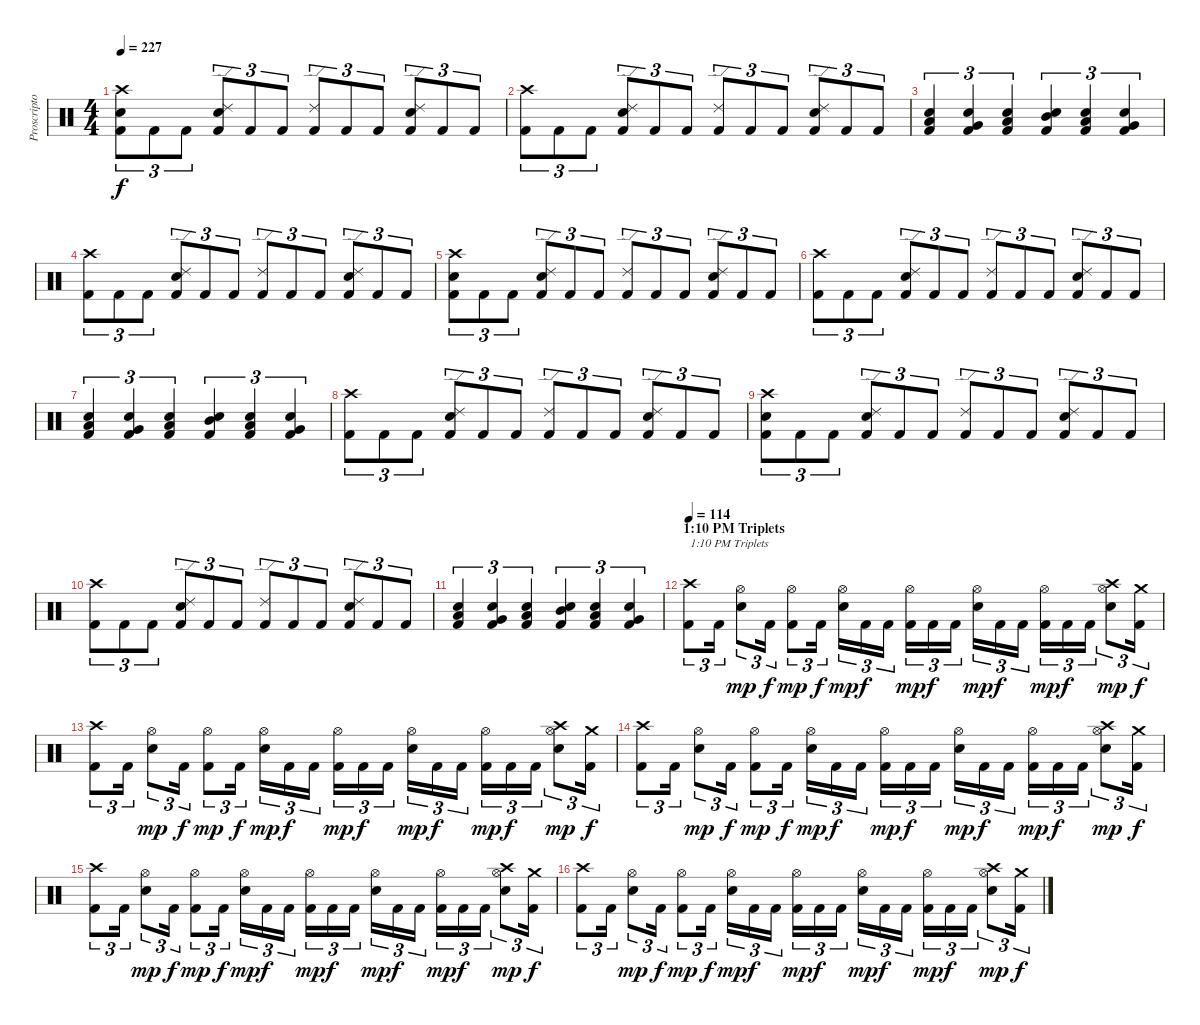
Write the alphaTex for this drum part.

\track ("Proscriptor (Drums)" "Proscripto") {instrument percussion}
\staff {score}
\articulation defaults
\ts (4 4)
\tempo 227
\clef neutral
\ks c
("Kick (hit) 2" "Electric Snare (hit)" "Crash high (hit)").8{tu (3 2) dy f} "Kick (hit) 2".8{tu (3 2)} "Kick (hit) 2".8{tu (3 2)} ("Kick (hit) 2" "Electric Snare (hit)" "Ride (edge) 2").8{tu (3 2)} "Kick (hit) 2".8{tu (3 2)} "Kick (hit) 2".8{tu (3 2)} ("Kick (hit) 2" "Ride (edge) 2").8{tu (3 2)} "Kick (hit) 2".8{tu (3 2)} "Kick (hit) 2".8{tu (3 2)} ("Kick (hit) 2" "Electric Snare (hit)" "Ride (edge) 2").8{tu (3 2)} "Kick (hit) 2".8{tu (3 2)} "Kick (hit) 2".8{tu (3 2)} |
("Kick (hit) 2" "Crash high (hit)").8{tu (3 2)} "Kick (hit) 2".8{tu (3 2)} "Kick (hit) 2".8{tu (3 2)} ("Kick (hit) 2" "Electric Snare (hit)" "Ride (edge) 2").8{tu (3 2)} "Kick (hit) 2".8{tu (3 2)} "Kick (hit) 2".8{tu (3 2)} ("Kick (hit) 2" "Ride (edge) 2").8{tu (3 2)} "Kick (hit) 2".8{tu (3 2)} "Kick (hit) 2".8{tu (3 2)} ("Kick (hit) 2" "Electric Snare (hit)" "Ride (edge) 2").8{tu (3 2)} "Kick (hit) 2".8{tu (3 2)} "Kick (hit) 2".8{tu (3 2)} |
("Kick (hit) 2" "Low Floor Tom (hit)" "Electric Snare (hit)").4{tu (3 2)} ("Kick (hit) 2" "Very Low Tom (hit)" "Electric Snare (hit)").4{tu (3 2)} ("Kick (hit) 2" "Low Tom (hit)" "Electric Snare (hit)").4{tu (3 2)} ("Kick (hit) 2" "Mid Tom (hit)" "Electric Snare (hit)").4{tu (3 2)} ("Kick (hit) 2" "Low Tom (hit)" "Electric Snare (hit)").4{tu (3 2)} ("Kick (hit) 2" "Very Low Tom (hit)" "Electric Snare (hit)").4{tu (3 2)} |
("Kick (hit) 2" "Crash high (hit)").8{tu (3 2)} "Kick (hit) 2".8{tu (3 2)} "Kick (hit) 2".8{tu (3 2)} ("Kick (hit) 2" "Electric Snare (hit)" "Ride (edge) 2").8{tu (3 2)} "Kick (hit) 2".8{tu (3 2)} "Kick (hit) 2".8{tu (3 2)} ("Kick (hit) 2" "Ride (edge) 2").8{tu (3 2)} "Kick (hit) 2".8{tu (3 2)} "Kick (hit) 2".8{tu (3 2)} ("Kick (hit) 2" "Electric Snare (hit)" "Ride (edge) 2").8{tu (3 2)} "Kick (hit) 2".8{tu (3 2)} "Kick (hit) 2".8{tu (3 2)} |
("Kick (hit) 2" "Electric Snare (hit)" "Crash high (hit)").8{tu (3 2)} "Kick (hit) 2".8{tu (3 2)} "Kick (hit) 2".8{tu (3 2)} ("Kick (hit) 2" "Electric Snare (hit)" "Ride (edge) 2").8{tu (3 2)} "Kick (hit) 2".8{tu (3 2)} "Kick (hit) 2".8{tu (3 2)} ("Kick (hit) 2" "Ride (edge) 2").8{tu (3 2)} "Kick (hit) 2".8{tu (3 2)} "Kick (hit) 2".8{tu (3 2)} ("Kick (hit) 2" "Electric Snare (hit)" "Ride (edge) 2").8{tu (3 2)} "Kick (hit) 2".8{tu (3 2)} "Kick (hit) 2".8{tu (3 2)} |
("Kick (hit) 2" "Crash high (hit)").8{tu (3 2)} "Kick (hit) 2".8{tu (3 2)} "Kick (hit) 2".8{tu (3 2)} ("Kick (hit) 2" "Electric Snare (hit)" "Ride (edge) 2").8{tu (3 2)} "Kick (hit) 2".8{tu (3 2)} "Kick (hit) 2".8{tu (3 2)} ("Kick (hit) 2" "Ride (edge) 2").8{tu (3 2)} "Kick (hit) 2".8{tu (3 2)} "Kick (hit) 2".8{tu (3 2)} ("Kick (hit) 2" "Electric Snare (hit)" "Ride (edge) 2").8{tu (3 2)} "Kick (hit) 2".8{tu (3 2)} "Kick (hit) 2".8{tu (3 2)} |
("Kick (hit) 2" "Low Floor Tom (hit)" "Electric Snare (hit)").4{tu (3 2)} ("Kick (hit) 2" "Very Low Tom (hit)" "Electric Snare (hit)").4{tu (3 2)} ("Kick (hit) 2" "Low Tom (hit)" "Electric Snare (hit)").4{tu (3 2)} ("Kick (hit) 2" "Mid Tom (hit)" "Electric Snare (hit)").4{tu (3 2)} ("Kick (hit) 2" "Low Tom (hit)" "Electric Snare (hit)").4{tu (3 2)} ("Kick (hit) 2" "Very Low Tom (hit)" "Electric Snare (hit)").4{tu (3 2)} |
("Kick (hit) 2" "Crash high (hit)").8{tu (3 2)} "Kick (hit) 2".8{tu (3 2)} "Kick (hit) 2".8{tu (3 2)} ("Kick (hit) 2" "Electric Snare (hit)" "Ride (edge) 2").8{tu (3 2)} "Kick (hit) 2".8{tu (3 2)} "Kick (hit) 2".8{tu (3 2)} ("Kick (hit) 2" "Ride (edge) 2").8{tu (3 2)} "Kick (hit) 2".8{tu (3 2)} "Kick (hit) 2".8{tu (3 2)} ("Kick (hit) 2" "Electric Snare (hit)" "Ride (edge) 2").8{tu (3 2)} "Kick (hit) 2".8{tu (3 2)} "Kick (hit) 2".8{tu (3 2)} |
("Kick (hit) 2" "Electric Snare (hit)" "Crash high (hit)").8{tu (3 2)} "Kick (hit) 2".8{tu (3 2)} "Kick (hit) 2".8{tu (3 2)} ("Kick (hit) 2" "Electric Snare (hit)" "Ride (edge) 2").8{tu (3 2)} "Kick (hit) 2".8{tu (3 2)} "Kick (hit) 2".8{tu (3 2)} ("Kick (hit) 2" "Ride (edge) 2").8{tu (3 2)} "Kick (hit) 2".8{tu (3 2)} "Kick (hit) 2".8{tu (3 2)} ("Kick (hit) 2" "Electric Snare (hit)" "Ride (edge) 2").8{tu (3 2)} "Kick (hit) 2".8{tu (3 2)} "Kick (hit) 2".8{tu (3 2)} |
("Kick (hit) 2" "Crash high (hit)").8{tu (3 2)} "Kick (hit) 2".8{tu (3 2)} "Kick (hit) 2".8{tu (3 2)} ("Kick (hit) 2" "Electric Snare (hit)" "Ride (edge) 2").8{tu (3 2)} "Kick (hit) 2".8{tu (3 2)} "Kick (hit) 2".8{tu (3 2)} ("Kick (hit) 2" "Ride (edge) 2").8{tu (3 2)} "Kick (hit) 2".8{tu (3 2)} "Kick (hit) 2".8{tu (3 2)} ("Kick (hit) 2" "Electric Snare (hit)" "Ride (edge) 2").8{tu (3 2)} "Kick (hit) 2".8{tu (3 2)} "Kick (hit) 2".8{tu (3 2)} |
("Kick (hit) 2" "Low Floor Tom (hit)" "Electric Snare (hit)").4{tu (3 2)} ("Kick (hit) 2" "Very Low Tom (hit)" "Electric Snare (hit)").4{tu (3 2)} ("Kick (hit) 2" "Low Tom (hit)" "Electric Snare (hit)").4{tu (3 2)} ("Kick (hit) 2" "Mid Tom (hit)" "Electric Snare (hit)").4{tu (3 2)} ("Kick (hit) 2" "Low Tom (hit)" "Electric Snare (hit)").4{tu (3 2)} ("Kick (hit) 2" "Very Low Tom (hit)" "Electric Snare (hit)").4{tu (3 2)} |
\section ("" "1:10 PM Triplets ")
\tempo 114
("Kick (hit) 2" "Crash high (hit)").8{tu (3 2) txt "1:10 PM Triplets "} "Kick (hit) 2".16{tu (3 2)} ("Electric Snare (hit)" "Hi-Hat (open)").8{tu (3 2) dy mp} "Kick (hit) 2".16{tu (3 2) dy f} ("Kick (hit) 2" "Hi-Hat (open)").8{tu (3 2) dy mp} "Kick (hit) 2".16{tu (3 2) dy f} ("Electric Snare (hit)" "Hi-Hat (open)").16{tu (3 2) dy mp} "Kick (hit) 2".16{tu (3 2) dy f} "Kick (hit) 2".16{tu (3 2)} ("Kick (hit) 2" "Hi-Hat (open)").16{tu (3 2) dy mp} "Kick (hit) 2".16{tu (3 2) dy f} "Kick (hit) 2".16{tu (3 2)} ("Electric Snare (hit)" "Hi-Hat (open)").16{tu (3 2) dy mp} "Kick (hit) 2".16{tu (3 2) dy f} "Kick (hit) 2".16{tu (3 2)} ("Kick (hit) 2" "Hi-Hat (open)").16{tu (3 2) dy mp} "Kick (hit) 2".16{tu (3 2) dy f} "Kick (hit) 2".16{tu (3 2)} ("Electric Snare (hit)" "Hi-Hat (open)" "Crash high (hit)").8{tu (3 2) dy mp} ("Kick (hit) 2" "Crash medium (hit)").16{tu (3 2) dy f} |
("Kick (hit) 2" "Crash high (hit)").8{tu (3 2)} "Kick (hit) 2".16{tu (3 2)} ("Electric Snare (hit)" "Hi-Hat (open)").8{tu (3 2) dy mp} "Kick (hit) 2".16{tu (3 2) dy f} ("Kick (hit) 2" "Hi-Hat (open)").8{tu (3 2) dy mp} "Kick (hit) 2".16{tu (3 2) dy f} ("Electric Snare (hit)" "Hi-Hat (open)").16{tu (3 2) dy mp} "Kick (hit) 2".16{tu (3 2) dy f} "Kick (hit) 2".16{tu (3 2)} ("Kick (hit) 2" "Hi-Hat (open)").16{tu (3 2) dy mp} "Kick (hit) 2".16{tu (3 2) dy f} "Kick (hit) 2".16{tu (3 2)} ("Electric Snare (hit)" "Hi-Hat (open)").16{tu (3 2) dy mp} "Kick (hit) 2".16{tu (3 2) dy f} "Kick (hit) 2".16{tu (3 2)} ("Kick (hit) 2" "Hi-Hat (open)").16{tu (3 2) dy mp} "Kick (hit) 2".16{tu (3 2) dy f} "Kick (hit) 2".16{tu (3 2)} ("Electric Snare (hit)" "Hi-Hat (open)" "Crash high (hit)").8{tu (3 2) dy mp} ("Kick (hit) 2" "Crash medium (hit)").16{tu (3 2) dy f} |
("Kick (hit) 2" "Crash high (hit)").8{tu (3 2)} "Kick (hit) 2".16{tu (3 2)} ("Electric Snare (hit)" "Hi-Hat (open)").8{tu (3 2) dy mp} "Kick (hit) 2".16{tu (3 2) dy f} ("Kick (hit) 2" "Hi-Hat (open)").8{tu (3 2) dy mp} "Kick (hit) 2".16{tu (3 2) dy f} ("Electric Snare (hit)" "Hi-Hat (open)").16{tu (3 2) dy mp} "Kick (hit) 2".16{tu (3 2) dy f} "Kick (hit) 2".16{tu (3 2)} ("Kick (hit) 2" "Hi-Hat (open)").16{tu (3 2) dy mp} "Kick (hit) 2".16{tu (3 2) dy f} "Kick (hit) 2".16{tu (3 2)} ("Electric Snare (hit)" "Hi-Hat (open)").16{tu (3 2) dy mp} "Kick (hit) 2".16{tu (3 2) dy f} "Kick (hit) 2".16{tu (3 2)} ("Kick (hit) 2" "Hi-Hat (open)").16{tu (3 2) dy mp} "Kick (hit) 2".16{tu (3 2) dy f} "Kick (hit) 2".16{tu (3 2)} ("Electric Snare (hit)" "Hi-Hat (open)" "Crash high (hit)").8{tu (3 2) dy mp} ("Kick (hit) 2" "Crash medium (hit)").16{tu (3 2) dy f} |
("Kick (hit) 2" "Crash high (hit)").8{tu (3 2)} "Kick (hit) 2".16{tu (3 2)} ("Electric Snare (hit)" "Hi-Hat (open)").8{tu (3 2) dy mp} "Kick (hit) 2".16{tu (3 2) dy f} ("Kick (hit) 2" "Hi-Hat (open)").8{tu (3 2) dy mp} "Kick (hit) 2".16{tu (3 2) dy f} ("Electric Snare (hit)" "Hi-Hat (open)").16{tu (3 2) dy mp} "Kick (hit) 2".16{tu (3 2) dy f} "Kick (hit) 2".16{tu (3 2)} ("Kick (hit) 2" "Hi-Hat (open)").16{tu (3 2) dy mp} "Kick (hit) 2".16{tu (3 2) dy f} "Kick (hit) 2".16{tu (3 2)} ("Electric Snare (hit)" "Hi-Hat (open)").16{tu (3 2) dy mp} "Kick (hit) 2".16{tu (3 2) dy f} "Kick (hit) 2".16{tu (3 2)} ("Kick (hit) 2" "Hi-Hat (open)").16{tu (3 2) dy mp} "Kick (hit) 2".16{tu (3 2) dy f} "Kick (hit) 2".16{tu (3 2)} ("Electric Snare (hit)" "Hi-Hat (open)" "Crash high (hit)").8{tu (3 2) dy mp} ("Kick (hit) 2" "Crash medium (hit)").16{tu (3 2) dy f} |
("Kick (hit) 2" "Crash high (hit)").8{tu (3 2)} "Kick (hit) 2".16{tu (3 2)} ("Electric Snare (hit)" "Hi-Hat (open)").8{tu (3 2) dy mp} "Kick (hit) 2".16{tu (3 2) dy f} ("Kick (hit) 2" "Hi-Hat (open)").8{tu (3 2) dy mp} "Kick (hit) 2".16{tu (3 2) dy f} ("Electric Snare (hit)" "Hi-Hat (open)").16{tu (3 2) dy mp} "Kick (hit) 2".16{tu (3 2) dy f} "Kick (hit) 2".16{tu (3 2)} ("Kick (hit) 2" "Hi-Hat (open)").16{tu (3 2) dy mp} "Kick (hit) 2".16{tu (3 2) dy f} "Kick (hit) 2".16{tu (3 2)} ("Electric Snare (hit)" "Hi-Hat (open)").16{tu (3 2) dy mp} "Kick (hit) 2".16{tu (3 2) dy f} "Kick (hit) 2".16{tu (3 2)} ("Kick (hit) 2" "Hi-Hat (open)").16{tu (3 2) dy mp} "Kick (hit) 2".16{tu (3 2) dy f} "Kick (hit) 2".16{tu (3 2)} ("Electric Snare (hit)" "Hi-Hat (open)" "Crash high (hit)").8{tu (3 2) dy mp} ("Kick (hit) 2" "Crash medium (hit)").16{tu (3 2) dy f}
